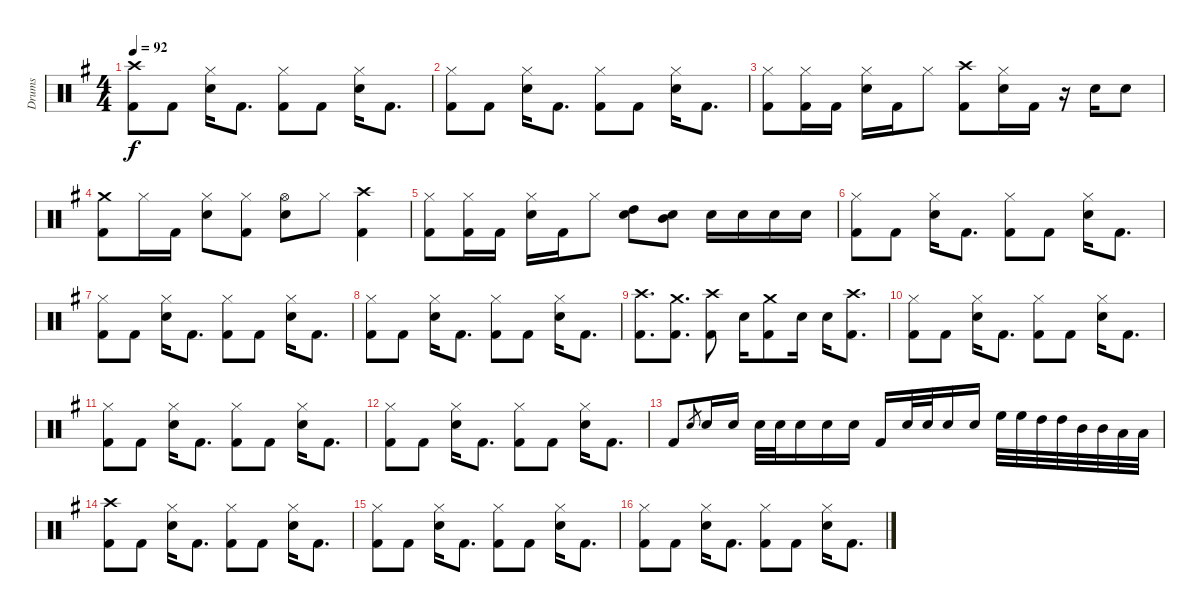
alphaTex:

\track ("Drums" "Drums") {instrument percussion}
\staff {score}
\articulation defaults
\ts (4 4)
\tempo 92
\clef neutral
\ks eminor
("Crash high (hit)" "Kick (hit) 2").8{dy f} "Kick (hit) 2".8 ("Hi-Hat (closed)" "Snare (hit) 2").16 "Kick (hit) 2".8{d} ("Hi-Hat (closed)" "Kick (hit) 2").8 "Kick (hit) 2".8 ("Hi-Hat (closed)" "Snare (hit) 2").16 "Kick (hit) 2".8{d} |
("Hi-Hat (closed)" "Kick (hit) 2").8 "Kick (hit) 2".8 ("Hi-Hat (closed)" "Snare (hit) 2").16 "Kick (hit) 2".8{d} ("Hi-Hat (closed)" "Kick (hit) 2").8 "Kick (hit) 2".8 ("Hi-Hat (closed)" "Snare (hit) 2").16 "Kick (hit) 2".8{d} |
("Hi-Hat (closed)" "Kick (hit) 2").8 ("Hi-Hat (closed)" "Kick (hit) 2").16 "Kick (hit) 2".16 ("Hi-Hat (closed)" "Snare (hit) 2").16 "Kick (hit) 2".16 "Hi-Hat (closed)".8 ("Crash high (hit)" "Kick (hit) 2").8 ("Hi-Hat (closed)" "Snare (hit) 2").16 "Kick (hit) 2".16 r.16 "Snare (hit) 2".16 "Snare (hit) 2".8 |
("Crash medium (hit)" "Kick (hit) 2").8 "Hi-Hat (closed)".16 "Kick (hit) 2".16 ("Hi-Hat (closed)" "Snare (hit) 2").8 ("Hi-Hat (closed)" "Kick (hit) 2").8 ("Hi-Hat (open)" "Snare (hit) 2").8 "Hi-Hat (closed)".8 ("Crash high (hit)" "Kick (hit) 2").4 |
("Hi-Hat (closed)" "Kick (hit) 2").8 ("Hi-Hat (closed)" "Kick (hit) 2").16 "Kick (hit) 2".16 ("Hi-Hat (closed)" "Snare (hit) 2").16 "Kick (hit) 2".16 "Hi-Hat (closed)".8 ("High Tom (hit)" "Snare (hit) 2").8 ("Mid Tom (hit)" "Snare (hit) 2").8 "Snare (hit) 2".16 "Snare (hit) 2".16 "Snare (hit) 2".16 "Snare (hit) 2".16 |
("Hi-Hat (closed)" "Kick (hit) 2").8 "Kick (hit) 2".8 ("Hi-Hat (closed)" "Snare (hit) 2").16 "Kick (hit) 2".8{d} ("Hi-Hat (closed)" "Kick (hit) 2").8 "Kick (hit) 2".8 ("Hi-Hat (closed)" "Snare (hit) 2").16 "Kick (hit) 2".8{d} |
("Hi-Hat (closed)" "Kick (hit) 2").8 "Kick (hit) 2".8 ("Hi-Hat (closed)" "Snare (hit) 2").16 "Kick (hit) 2".8{d} ("Hi-Hat (closed)" "Kick (hit) 2").8 "Kick (hit) 2".8 ("Hi-Hat (closed)" "Snare (hit) 2").16 "Kick (hit) 2".8{d} |
("Hi-Hat (closed)" "Kick (hit) 2").8 "Kick (hit) 2".8 ("Hi-Hat (closed)" "Snare (hit) 2").16 "Kick (hit) 2".8{d} ("Hi-Hat (closed)" "Kick (hit) 2").8 "Kick (hit) 2".8 ("Hi-Hat (closed)" "Snare (hit) 2").16 "Kick (hit) 2".8{d} |
("Crash high (hit)" "Kick (hit) 2").8{d} ("Crash medium (hit)" "Kick (hit) 2").8{d} ("Crash high (hit)" "Kick (hit) 2").8 "Snare (hit) 2".16 ("Crash medium (hit)" "Kick (hit) 2").8 "Snare (hit) 2".16 "Snare (hit) 2".16 ("Crash high (hit)" "Kick (hit) 2").8{d} |
("Hi-Hat (closed)" "Kick (hit) 2").8 "Kick (hit) 2".8 ("Hi-Hat (closed)" "Snare (hit) 2").16 "Kick (hit) 2".8{d} ("Hi-Hat (closed)" "Kick (hit) 2").8 "Kick (hit) 2".8 ("Hi-Hat (closed)" "Snare (hit) 2").16 "Kick (hit) 2".8{d} |
("Hi-Hat (closed)" "Kick (hit) 2").8 "Kick (hit) 2".8 ("Hi-Hat (closed)" "Snare (hit) 2").16 "Kick (hit) 2".8{d} ("Hi-Hat (closed)" "Kick (hit) 2").8 "Kick (hit) 2".8 ("Hi-Hat (closed)" "Snare (hit) 2").16 "Kick (hit) 2".8{d} |
("Hi-Hat (closed)" "Kick (hit) 2").8 "Kick (hit) 2".8 ("Hi-Hat (closed)" "Snare (hit) 2").16 "Kick (hit) 2".8{d} ("Hi-Hat (closed)" "Kick (hit) 2").8 "Kick (hit) 2".8 ("Hi-Hat (closed)" "Snare (hit) 2").16 "Kick (hit) 2".8{d} |
"Kick (hit) 2".8 "Snare (hit) 2".8{gr} "Snare (hit) 2".16 "Snare (hit) 2".16 "Snare (hit) 2".32 "Snare (hit) 2".32 "Snare (hit) 2".16 "Snare (hit) 2".16 "Snare (hit) 2".16 "Kick (hit) 2".16 "Snare (hit) 2".32 "Snare (hit) 2".32 "Snare (hit) 2".16 "Snare (hit) 2".16 "High Floor Tom (hit)".32 "High Floor Tom (hit)".32 "High Tom (hit)".32 "High Tom (hit)".32 "Mid Tom (hit)".32 "Mid Tom (hit)".32 "Low Tom (hit)".32 "Low Tom (hit)".32 |
("Crash high (hit)" "Kick (hit) 2").8 "Kick (hit) 2".8 ("Hi-Hat (closed)" "Snare (hit) 2").16 "Kick (hit) 2".8{d} ("Hi-Hat (closed)" "Kick (hit) 2").8 "Kick (hit) 2".8 ("Hi-Hat (closed)" "Snare (hit) 2").16 "Kick (hit) 2".8{d} |
("Hi-Hat (closed)" "Kick (hit) 2").8 "Kick (hit) 2".8 ("Hi-Hat (closed)" "Snare (hit) 2").16 "Kick (hit) 2".8{d} ("Hi-Hat (closed)" "Kick (hit) 2").8 "Kick (hit) 2".8 ("Hi-Hat (closed)" "Snare (hit) 2").16 "Kick (hit) 2".8{d} |
("Hi-Hat (closed)" "Kick (hit) 2").8 "Kick (hit) 2".8 ("Hi-Hat (closed)" "Snare (hit) 2").16 "Kick (hit) 2".8{d} ("Hi-Hat (closed)" "Kick (hit) 2").8 "Kick (hit) 2".8 ("Hi-Hat (closed)" "Snare (hit) 2").16 "Kick (hit) 2".8{d}
